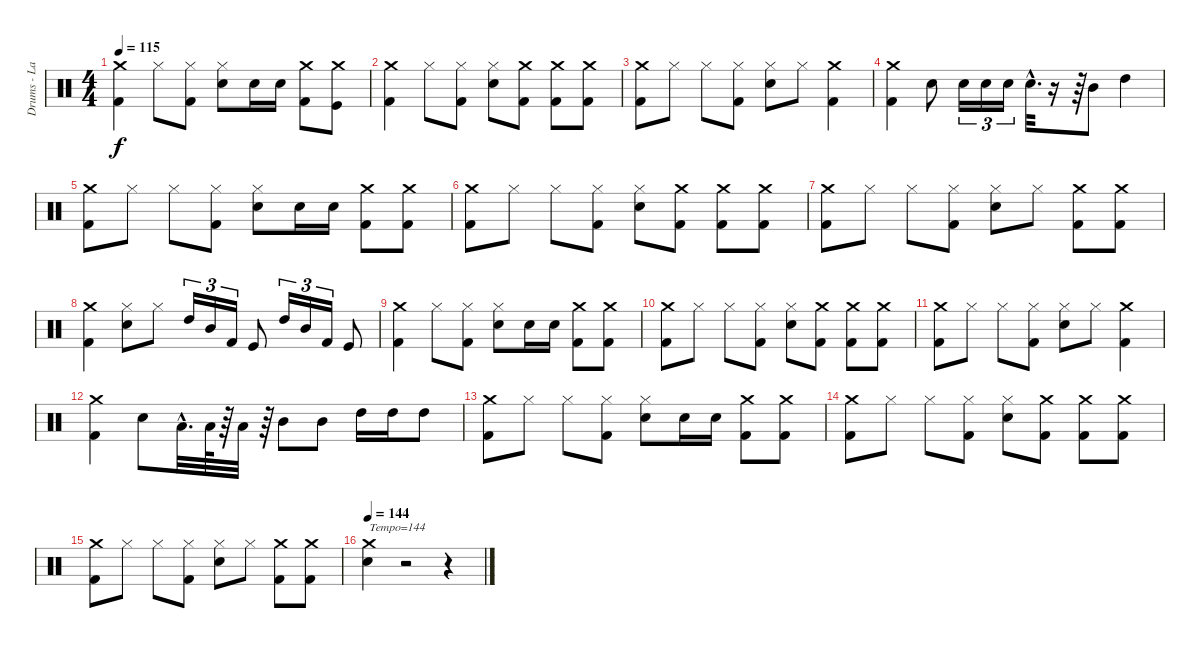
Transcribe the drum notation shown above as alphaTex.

\track ("Drums - Lars" "Drums - La") {instrument percussion}
\staff {score}
\articulation defaults
\ts (4 4)
\tempo 115
\clef neutral
\ks c
("Crash medium (hit)" "Kick (hit) 2").4{dy f} "Hi-Hat (closed)".8 ("Kick (hit) 2" "Hi-Hat (closed)").8 ("Snare (hit) 2" "Hi-Hat (closed)").8 "Snare (hit) 2".16 "Snare (hit) 2".16 ("Crash medium (hit)" "Kick (hit) 2").8 ("Crash medium (hit)" "Kick (hit)").8 |
("Kick (hit) 2" "Crash medium (hit)").4 "Hi-Hat (closed)".8 ("Kick (hit) 2" "Hi-Hat (closed)").8 ("Hi-Hat (closed)" "Snare (hit) 2").8 ("Kick (hit) 2" "Crash medium (hit)").8 ("Kick (hit) 2" "Crash medium (hit)").8 ("Kick (hit) 2" "Crash medium (hit)").8 |
("Kick (hit) 2" "Crash medium (hit)").8 "Hi-Hat (closed)".8 "Hi-Hat (closed)".8 ("Kick (hit) 2" "Hi-Hat (closed)").8 ("Snare (hit) 2" "Hi-Hat (closed)").8 "Hi-Hat (closed)".8 ("Kick (hit) 2" "Crash medium (hit)").4 |
("Kick (hit) 2" "Crash medium (hit)").4 "Snare (hit) 2".8 "Snare (hit) 2".16{tu (3 2)} "Snare (hit) 2".16{tu (3 2)} "Snare (hit) 2".16{tu (3 2)} "Snare (hit) 2"{hac}.32{d} r.16 r.64 "Mid Tom (hit)".8 "High Tom (hit)".4 |
("Kick (hit) 2" "Crash medium (hit)").8 "Hi-Hat (closed)".8 "Hi-Hat (closed)".8 ("Kick (hit) 2" "Hi-Hat (closed)").8 ("Snare (hit) 2" "Hi-Hat (closed)").8 "Snare (hit) 2".16 "Snare (hit) 2".16 ("Kick (hit) 2" "Crash medium (hit)").8 ("Kick (hit) 2" "Crash medium (hit)").8 |
("Kick (hit) 2" "Crash medium (hit)").8 "Hi-Hat (closed)".8 "Hi-Hat (closed)".8 ("Kick (hit) 2" "Hi-Hat (closed)").8 ("Snare (hit) 2" "Hi-Hat (closed)").8 ("Kick (hit) 2" "Crash medium (hit)").8 ("Kick (hit) 2" "Crash medium (hit)").8 ("Kick (hit) 2" "Crash medium (hit)").8 |
("Kick (hit) 2" "Crash medium (hit)").8 "Hi-Hat (closed)".8 "Hi-Hat (closed)".8 ("Kick (hit) 2" "Hi-Hat (closed)").8 ("Snare (hit) 2" "Hi-Hat (closed)").8 "Hi-Hat (closed)".8 ("Kick (hit) 2" "Crash medium (hit)").8 ("Kick (hit) 2" "Crash medium (hit)").8 |
("Kick (hit) 2" "Crash medium (hit)").4 ("Hi-Hat (closed)" "Snare (hit) 2").8 "Hi-Hat (closed)".8 "High Tom (hit)".16{tu (3 2)} "Mid Tom (hit)".16{tu (3 2)} "Kick (hit) 2".16{tu (3 2)} "Kick (hit)".8 "High Tom (hit)".16{tu (3 2)} "Mid Tom (hit)".16{tu (3 2)} "Kick (hit) 2".16{tu (3 2)} "Kick (hit)".8 |
("Kick (hit) 2" "Crash medium (hit)").4 "Hi-Hat (closed)".8 ("Kick (hit) 2" "Hi-Hat (closed)").8 ("Snare (hit) 2" "Hi-Hat (closed)").8 "Snare (hit) 2".16 "Snare (hit) 2".16 ("Crash medium (hit)" "Kick (hit) 2").8 ("Crash medium (hit)" "Kick (hit) 2").8 |
("Kick (hit) 2" "Crash medium (hit)").8 "Hi-Hat (closed)".8 "Hi-Hat (closed)".8 ("Kick (hit) 2" "Hi-Hat (closed)").8 ("Snare (hit) 2" "Hi-Hat (closed)").8 ("Kick (hit) 2" "Crash medium (hit)").8 ("Kick (hit) 2" "Crash medium (hit)").8 ("Kick (hit) 2" "Crash medium (hit)").8 |
("Kick (hit) 2" "Crash medium (hit)").8 "Hi-Hat (closed)".8 "Hi-Hat (closed)".8 ("Kick (hit) 2" "Hi-Hat (closed)").8 ("Snare (hit) 2" "Hi-Hat (closed)").8 "Hi-Hat (closed)".8 ("Crash medium (hit)" "Kick (hit) 2").4 |
("Kick (hit) 2" "Crash medium (hit)").4 "Snare (hit) 2".8 "Low Tom (hit)"{hac}.32{d} "Low Tom (hit)".64 r.64 "Low Tom (hit)".32 r.64 "Mid Tom (hit)".8 "Mid Tom (hit)".8 "High Tom (hit)".16 "High Tom (hit)".16 "High Tom (hit)".8 |
("Kick (hit) 2" "Crash medium (hit)").8 "Hi-Hat (closed)".8 "Hi-Hat (closed)".8 ("Kick (hit) 2" "Hi-Hat (closed)").8 ("Snare (hit) 2" "Hi-Hat (closed)").8 "Snare (hit) 2".16 "Snare (hit) 2".16 ("Kick (hit) 2" "Crash medium (hit)").8 ("Kick (hit) 2" "Crash medium (hit)").8 |
("Crash medium (hit)" "Kick (hit) 2").8 "Hi-Hat (closed)".8 "Hi-Hat (closed)".8 ("Kick (hit) 2" "Hi-Hat (closed)").8 ("Snare (hit) 2" "Hi-Hat (closed)").8 ("Kick (hit) 2" "Crash medium (hit)").8 ("Kick (hit) 2" "Crash medium (hit)").8 ("Kick (hit) 2" "Crash medium (hit)").8 |
("Crash medium (hit)" "Kick (hit) 2").8 "Hi-Hat (closed)".8 "Hi-Hat (closed)".8 ("Kick (hit) 2" "Hi-Hat (closed)").8 ("Snare (hit) 2" "Hi-Hat (closed)").8 "Hi-Hat (closed)".8 ("Kick (hit) 2" "Crash medium (hit)").8 ("Kick (hit) 2" "Crash medium (hit)").8 |
\tempo 144
("Snare (hit)" "Crash medium (hit)").4{txt "Tempo=144"} r.2 r.4
